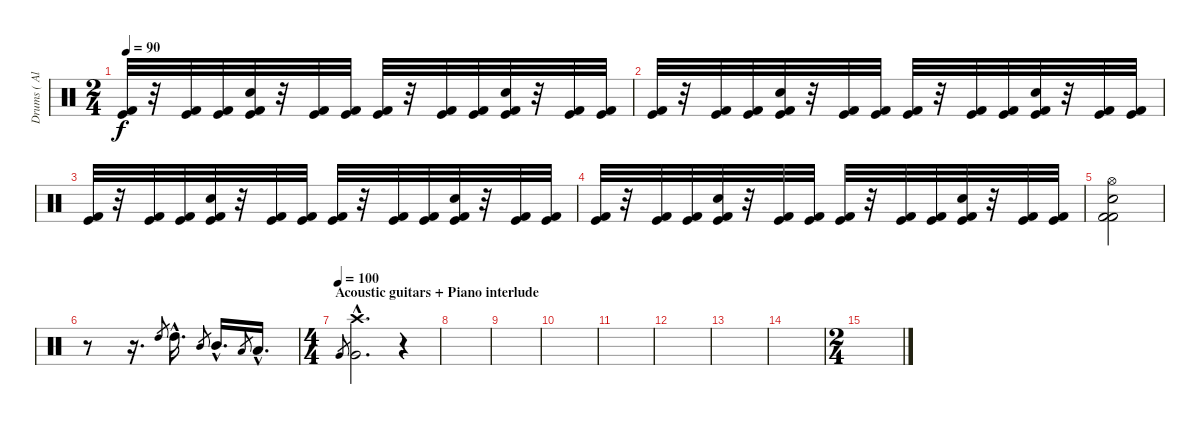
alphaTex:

\track ("Drums ( Alex Holzwarth)" "Drums ( Al") {instrument percussion}
\staff {score}
\articulation defaults
\ts (2 4)
\tempo 90
\clef neutral
\ks c
("Kick (hit) 2" "Kick (hit)").32{dy f} r.32 ("Kick (hit) 2" "Kick (hit)").32 ("Kick (hit) 2" "Kick (hit)").32 ("Snare (hit) 2" "Kick (hit) 2" "Kick (hit)").32 r.32 ("Kick (hit) 2" "Kick (hit)").32 ("Kick (hit) 2" "Kick (hit)").32 ("Kick (hit) 2" "Kick (hit)").32 r.32 ("Kick (hit) 2" "Kick (hit)").32 ("Kick (hit) 2" "Kick (hit)").32 ("Snare (hit) 2" "Kick (hit) 2" "Kick (hit)").32 r.32 ("Kick (hit) 2" "Kick (hit)").32 ("Kick (hit) 2" "Kick (hit)").32 |
("Kick (hit) 2" "Kick (hit)").32 r.32 ("Kick (hit) 2" "Kick (hit)").32 ("Kick (hit) 2" "Kick (hit)").32 ("Snare (hit) 2" "Kick (hit) 2" "Kick (hit)").32 r.32 ("Kick (hit) 2" "Kick (hit)").32 ("Kick (hit) 2" "Kick (hit)").32 ("Kick (hit) 2" "Kick (hit)").32 r.32 ("Kick (hit) 2" "Kick (hit)").32 ("Kick (hit) 2" "Kick (hit)").32 ("Snare (hit) 2" "Kick (hit) 2" "Kick (hit)").32 r.32 ("Kick (hit) 2" "Kick (hit)").32 ("Kick (hit) 2" "Kick (hit)").32 |
("Kick (hit) 2" "Kick (hit)").32 r.32 ("Kick (hit) 2" "Kick (hit)").32 ("Kick (hit) 2" "Kick (hit)").32 ("Snare (hit) 2" "Kick (hit) 2" "Kick (hit)").32 r.32 ("Kick (hit) 2" "Kick (hit)").32 ("Kick (hit) 2" "Kick (hit)").32 ("Kick (hit) 2" "Kick (hit)").32 r.32 ("Kick (hit) 2" "Kick (hit)").32 ("Kick (hit) 2" "Kick (hit)").32 ("Snare (hit) 2" "Kick (hit) 2" "Kick (hit)").32 r.32 ("Kick (hit) 2" "Kick (hit)").32 ("Kick (hit) 2" "Kick (hit)").32 |
("Kick (hit) 2" "Kick (hit)").32 r.32 ("Kick (hit) 2" "Kick (hit)").32 ("Kick (hit) 2" "Kick (hit)").32 ("Snare (hit) 2" "Kick (hit) 2" "Kick (hit)").32 r.32 ("Kick (hit) 2" "Kick (hit)").32 ("Kick (hit) 2" "Kick (hit)").32 ("Kick (hit) 2" "Kick (hit)").32 r.32 ("Kick (hit) 2" "Kick (hit)").32 ("Kick (hit) 2" "Kick (hit)").32 ("Snare (hit) 2" "Kick (hit) 2" "Kick (hit)").32 r.32 ("Kick (hit) 2" "Kick (hit)").32 ("Kick (hit) 2" "Kick (hit)").32 |
("Hi-Hat (open)" "Snare (hit) 2" "Kick (hit) 2" "Kick (hit) 2").2 |
r.8 r.16{d} "High Tom (hit)".8{gr} "High Tom (hit)"{hac}.16{d} "Mid Tom (hit)".8{gr} "Mid Tom (hit)"{hac}.16{d} "Low Tom (hit)".8{gr} "Low Tom (hit)"{hac}.16{d} |
\ts (4 4)
\section ("" "Acoustic guitars + Piano interlude")
\tempo (100)
"Very Low Tom (hit)".8{gr} ("Crash high (hit)"{hac} "Very Low Tom (hit)"{hac}).2{d} r.4 |
|
|
|
|
|
|
|
\ts (2 4)
